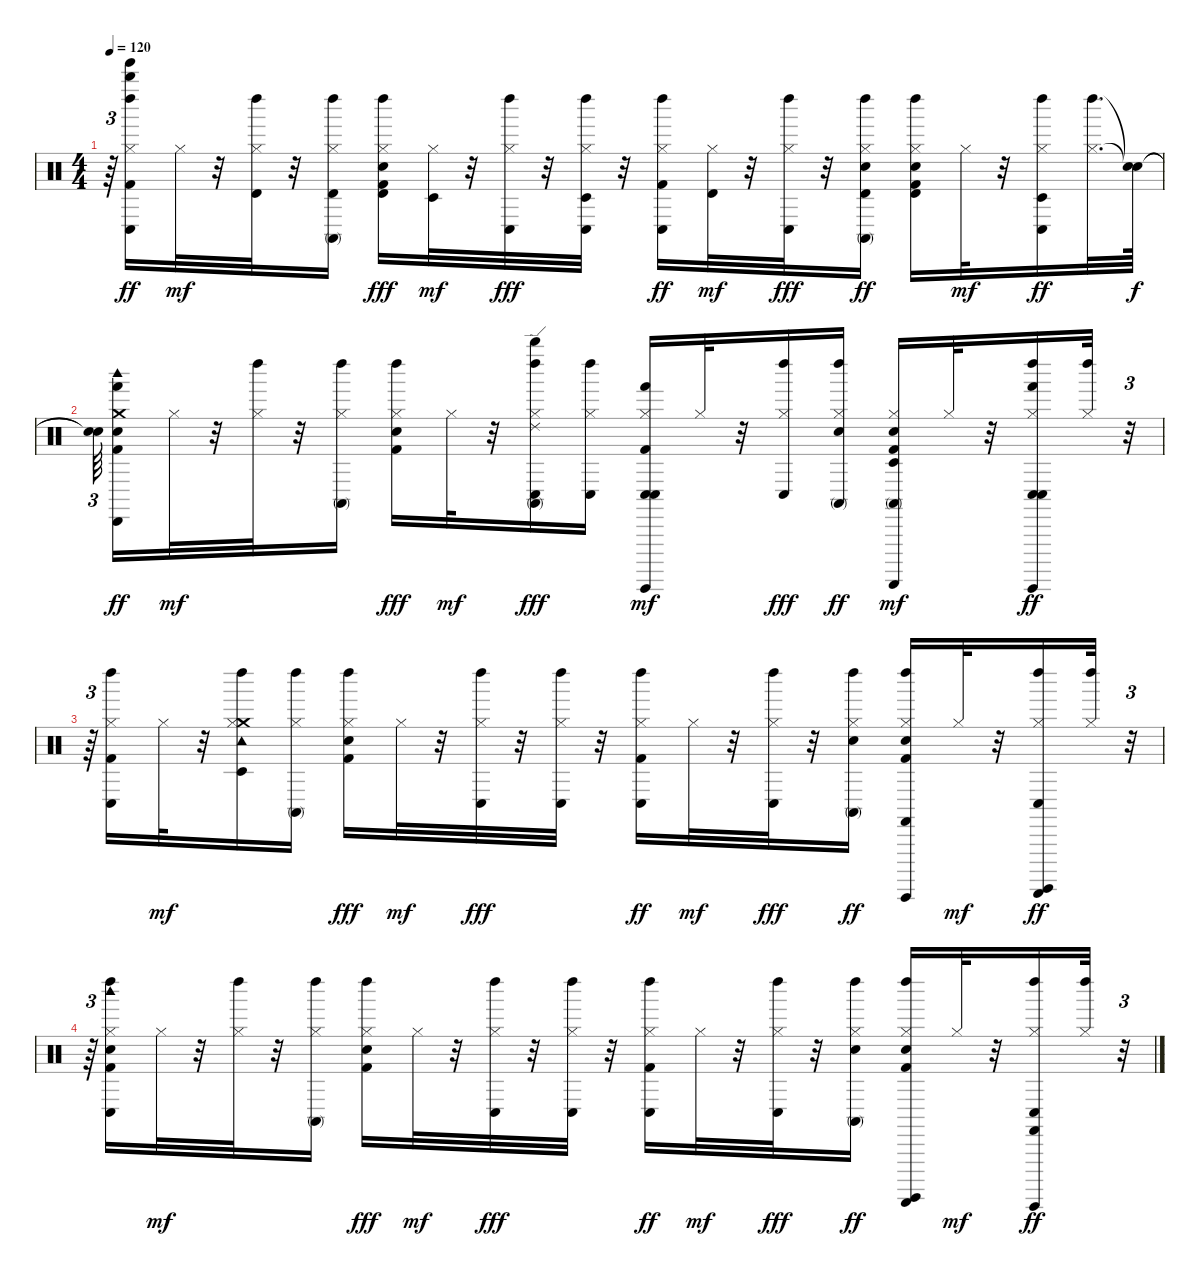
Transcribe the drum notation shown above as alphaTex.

\track "" {instrument percussion}
\staff {score}
\articulation defaults
\ts (4 4)
\tempo 120
\clef neutral
\ks c
r.64{tu (3 2) dy ff} ("Whistle high (hit)" "Tinkle Bell (hit)" "Kick (hit) 2" "Conga low (hit)" "Hi-Hat (closed)" "Left Maraca (hit)").16 "Hi-Hat (closed)".32{dy mf} r.32 ("Timbale high (hit)" "Hi-Hat (closed)" "Left Maraca (hit)").32 r.32 ("Timbale high (hit)" "Conga high (mute)" "Hi-Hat (closed)" "Left Maraca (hit)").16 ("Kick (hit) 2" "Electric Snare (hit)" "Timbale high (hit)" "Hi-Hat (closed)" "Left Maraca (hit)").16{dy fff} ("Timbale low (hit)" "Hi-Hat (closed)").32{dy mf} r.32 ("Conga low (hit)" "Hi-Hat (closed)" "Left Maraca (hit)").32{dy fff} r.32 ("Timbale low (hit)" "Conga low (hit)" "Hi-Hat (closed)" "Left Maraca (hit)").32 r.32 ("Kick (hit) 2" "Conga low (hit)" "Hi-Hat (closed)" "Left Maraca (hit)").16{dy ff} ("Timbale high (hit)" "Hi-Hat (closed)").32{dy mf} r.32 ("Conga low (hit)" "Hi-Hat (closed)" "Left Maraca (hit)").32{dy fff} r.32 ("Electric Snare (hit)" "Timbale high (hit)" "Conga high (mute)" "Hi-Hat (closed)" "Left Maraca (hit)").16{dy ff} ("Kick (hit) 2" "Electric Snare (hit)" "Timbale high (hit)" "Hi-Hat (closed)" "Left Maraca (hit)").16 "Hi-Hat (closed)".32{dy mf} r.32 ("Timbale low (hit)" "Conga low (hit)" "Hi-Hat (closed)" "Left Maraca (hit)").16{dy ff} ("Hi-Hat (closed)" "Left Maraca (hit)").32{d} ("Snare (hit)"{t} "Snare (hit)"{t}).64{dy f} |
("Snare (hit)"{t} "Snare (hit)"{t}).64{tu (3 2) beam splitsecondary} ("Hand (hit)" "Crash medium (hit)" "Cabasa (hit)" "Woodblock high (hit)" "Snare (hit)" "Kick (hit) 2").16{dy ff} "Hi-Hat (closed)".32{dy mf} r.32 ("Hi-Hat (closed)" "Left Maraca (hit)").32 r.32 ("Conga high (mute)" "Hi-Hat (closed)" "Left Maraca (hit)").16 ("Kick (hit) 2" "Electric Snare (hit)" "Hi-Hat (closed)" "Left Maraca (hit)").16{dy fff} "Hi-Hat (closed)".32{dy mf} r.32 ("Conga high (mute)" "Ride (edge) 2" "Whistle high (hit)" "Conga low (hit)" "Hi-Hat (closed)" "Left Maraca (hit)").16{dy fff} ("Conga low (hit)" "Hi-Hat (closed)" "Left Maraca (hit)").16 ("Conga low (hit)" "Hand (hit)" "Guiro (hit)" "Kick (hit) 2" "Conga low (hit)" "Hi-Hat (closed)").16{dy mf} "Hi-Hat (closed)".32 r.32 ("Conga low (hit)" "Hi-Hat (closed)" "Left Maraca (hit)").16{dy fff} ("Electric Snare (hit)" "Conga high (mute)" "Hi-Hat (closed)" "Left Maraca (hit)").16{dy ff} ("Timbale low (hit)" "Conga high (mute)" "Guiro (scrap-return)" "Kick (hit) 2" "Electric Snare (hit)" "Hi-Hat (closed)").16{dy mf} "Hi-Hat (closed)".32 r.32 ("Conga low (hit)" "Hand (hit)" "Guiro (hit)" "Conga low (hit)" "Hi-Hat (closed)" "Left Maraca (hit)").16{dy ff} ("Hi-Hat (closed)" "Left Maraca (hit)").32 r.32{tu (3 2)} |
r.64{tu (3 2)} ("Kick (hit) 2" "Conga low (hit)" "Hi-Hat (closed)" "Left Maraca (hit)").16 "Hi-Hat (closed)".32{dy mf} r.32 ("Crash medium (hit)" "Tambourine (hit)" "Timbale low (hit)" "Hi-Hat (closed)" "Left Maraca (hit)").16 ("Conga high (mute)" "Hi-Hat (closed)" "Left Maraca (hit)").16 ("Kick (hit) 2" "Electric Snare (hit)" "Hi-Hat (closed)" "Left Maraca (hit)").16{dy fff} "Hi-Hat (closed)".32{dy mf} r.32 ("Conga low (hit)" "Hi-Hat (closed)" "Left Maraca (hit)").32{dy fff} r.32 ("Conga low (hit)" "Hi-Hat (closed)" "Left Maraca (hit)").32 r.32 ("Kick (hit) 2" "Conga low (hit)" "Hi-Hat (closed)" "Left Maraca (hit)").16{dy ff} "Hi-Hat (closed)".32{dy mf} r.32 ("Conga low (hit)" "Hi-Hat (closed)" "Left Maraca (hit)").32{dy fff} r.32 ("Electric Snare (hit)" "Conga high (mute)" "Hi-Hat (closed)" "Left Maraca (hit)").16{dy ff} ("Guiro (hit)" "Castanets (hit)" "Kick (hit) 2" "Electric Snare (hit)" "Hi-Hat (closed)" "Left Maraca (hit)").16 "Hi-Hat (closed)".32{dy mf} r.32 ("Guiro (scrap-return)" "Surdo (hit)" "Conga low (hit)" "Hi-Hat (closed)" "Left Maraca (hit)").16{dy ff} ("Hi-Hat (closed)" "Left Maraca (hit)").32 r.32{tu (3 2)} |
r.64{tu (3 2)} ("Woodblock high (hit)" "Snare (hit)" "Kick (hit) 2" "Conga low (hit)" "Hi-Hat (closed)" "Left Maraca (hit)").16 "Hi-Hat (closed)".32{dy mf} r.32 ("Hi-Hat (closed)" "Left Maraca (hit)").32 r.32 ("Conga high (mute)" "Hi-Hat (closed)" "Left Maraca (hit)").16 ("Kick (hit) 2" "Electric Snare (hit)" "Hi-Hat (closed)" "Left Maraca (hit)").16{dy fff} "Hi-Hat (closed)".32{dy mf} r.32 ("Conga low (hit)" "Hi-Hat (closed)" "Left Maraca (hit)").32{dy fff} r.32 ("Conga low (hit)" "Hi-Hat (closed)" "Left Maraca (hit)").32 r.32 ("Kick (hit) 2" "Conga low (hit)" "Hi-Hat (closed)" "Left Maraca (hit)").16{dy ff} "Hi-Hat (closed)".32{dy mf} r.32 ("Conga low (hit)" "Hi-Hat (closed)" "Left Maraca (hit)").32{dy fff} r.32 ("Electric Snare (hit)" "Conga high (mute)" "Hi-Hat (closed)" "Left Maraca (hit)").16{dy ff} ("Guiro (scrap-return)" "Surdo (hit)" "Kick (hit) 2" "Electric Snare (hit)" "Hi-Hat (closed)" "Left Maraca (hit)").16 "Hi-Hat (closed)".32{dy mf} r.32 ("Guiro (hit)" "Castanets (hit)" "Conga low (hit)" "Hi-Hat (closed)" "Left Maraca (hit)").16{dy ff} ("Hi-Hat (closed)" "Left Maraca (hit)").32 r.32{tu (3 2)}
